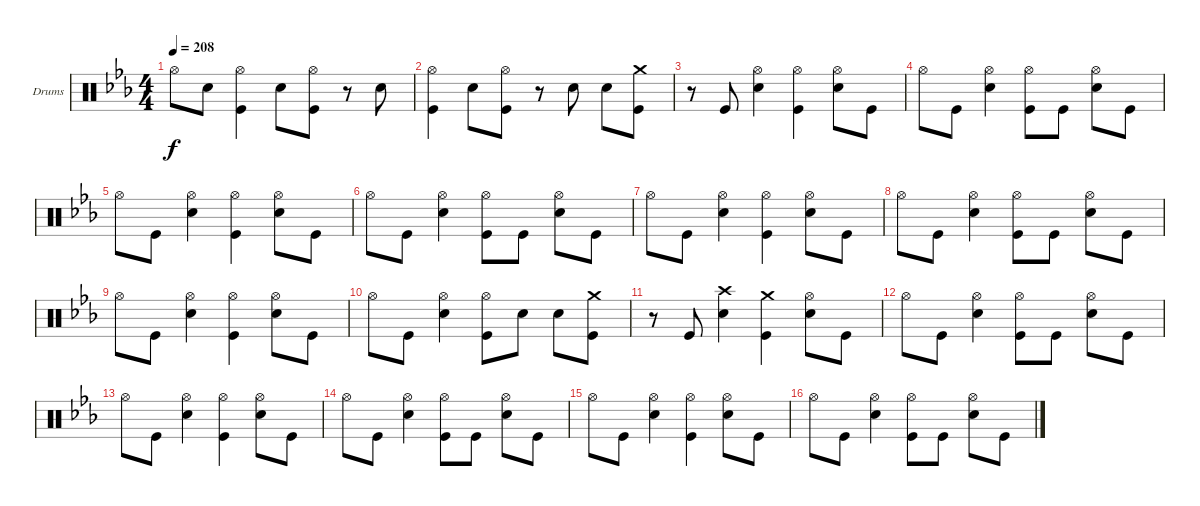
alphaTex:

\defaultSystemsLayout 4
\bracketExtendMode groupsimilarinstruments
\firstSystemTrackNameOrientation horizontal
\otherSystemsTrackNameOrientation horizontal
\track ("Drumkit" "Drums") {instrument percussion}
\staff {score}
\articulation defaults
\ts (4 4)
\tempo 208
\clef neutral
\ks eb "Hi-Hat (open)".8{dy f} "Snare (hit) 2".8
("Hi-Hat (open)" "Kick (hit)").4 "Snare (hit) 2".8 ("Hi-Hat (open)" "Kick (hit)").8 r.8 "Snare (hit) 2".8 |
("Hi-Hat (open)" "Kick (hit)").4 "Snare (hit) 2".8 ("Hi-Hat (open)" "Kick (hit)").8 r.8 "Snare (hit) 2".8 "Snare (hit) 2".8 ("Crash medium (hit)" "Kick (hit)").8 |
r.8 "Kick (hit)".8 ("Hi-Hat (open)" "Snare (hit) 2").4 ("Hi-Hat (open)" "Kick (hit)").4 ("Hi-Hat (open)" "Snare (hit) 2").8 "Kick (hit)".8 |
"Hi-Hat (open)".8 "Kick (hit)".8 ("Hi-Hat (open)" "Snare (hit) 2").4 ("Hi-Hat (open)" "Kick (hit)").8 "Kick (hit)".8 ("Hi-Hat (open)" "Snare (hit) 2").8 "Kick (hit)".8 |
"Hi-Hat (open)".8 "Kick (hit)".8 ("Hi-Hat (open)" "Snare (hit) 2").4 ("Hi-Hat (open)" "Kick (hit)").4 ("Hi-Hat (open)" "Snare (hit) 2").8 "Kick (hit)".8 |
"Hi-Hat (open)".8 "Kick (hit)".8 ("Hi-Hat (open)" "Snare (hit) 2").4 ("Hi-Hat (open)" "Kick (hit)").8 "Kick (hit)".8 ("Hi-Hat (open)" "Snare (hit) 2").8 "Kick (hit)".8 |
"Hi-Hat (open)".8 "Kick (hit)".8 ("Hi-Hat (open)" "Snare (hit) 2").4 ("Hi-Hat (open)" "Kick (hit)").4 ("Hi-Hat (open)" "Snare (hit) 2").8 "Kick (hit)".8 |
"Hi-Hat (open)".8 "Kick (hit)".8 ("Hi-Hat (open)" "Snare (hit) 2").4 ("Hi-Hat (open)" "Kick (hit)").8 "Kick (hit)".8 ("Hi-Hat (open)" "Snare (hit) 2").8 "Kick (hit)".8 |
"Hi-Hat (open)".8 "Kick (hit)".8 ("Hi-Hat (open)" "Snare (hit) 2").4 ("Hi-Hat (open)" "Kick (hit)").4 ("Hi-Hat (open)" "Snare (hit) 2").8 "Kick (hit)".8 |
"Hi-Hat (open)".8 "Kick (hit)".8 ("Hi-Hat (open)" "Snare (hit) 2").4 ("Hi-Hat (open)" "Kick (hit)").8 "Snare (hit) 2".8 "Snare (hit) 2".8 ("Crash medium (hit)" "Kick (hit)").8 |
r.8 "Kick (hit)".8 ("Crash high (hit)" "Snare (hit) 2").4 ("Crash medium (hit)" "Kick (hit)").4 ("Hi-Hat (open)" "Snare (hit) 2").8 "Kick (hit)".8 |
"Hi-Hat (open)".8 "Kick (hit)".8 ("Hi-Hat (open)" "Snare (hit) 2").4 ("Hi-Hat (open)" "Kick (hit)").8 "Kick (hit)".8 ("Hi-Hat (open)" "Snare (hit) 2").8 "Kick (hit)".8 |
"Hi-Hat (open)".8 "Kick (hit)".8 ("Hi-Hat (open)" "Snare (hit) 2").4 ("Hi-Hat (open)" "Kick (hit)").4 ("Hi-Hat (open)" "Snare (hit) 2").8 "Kick (hit)".8 |
"Hi-Hat (open)".8 "Kick (hit)".8 ("Hi-Hat (open)" "Snare (hit) 2").4 ("Hi-Hat (open)" "Kick (hit)").8 "Kick (hit)".8 ("Hi-Hat (open)" "Snare (hit) 2").8 "Kick (hit)".8 |
"Hi-Hat (open)".8 "Kick (hit)".8 ("Hi-Hat (open)" "Snare (hit) 2").4 ("Hi-Hat (open)" "Kick (hit)").4 ("Hi-Hat (open)" "Snare (hit) 2").8 "Kick (hit)".8 |
"Hi-Hat (open)".8 "Kick (hit)".8 ("Hi-Hat (open)" "Snare (hit) 2").4 ("Hi-Hat (open)" "Kick (hit)").8 "Kick (hit)".8 ("Hi-Hat (open)" "Snare (hit) 2").8 "Kick (hit)".8
